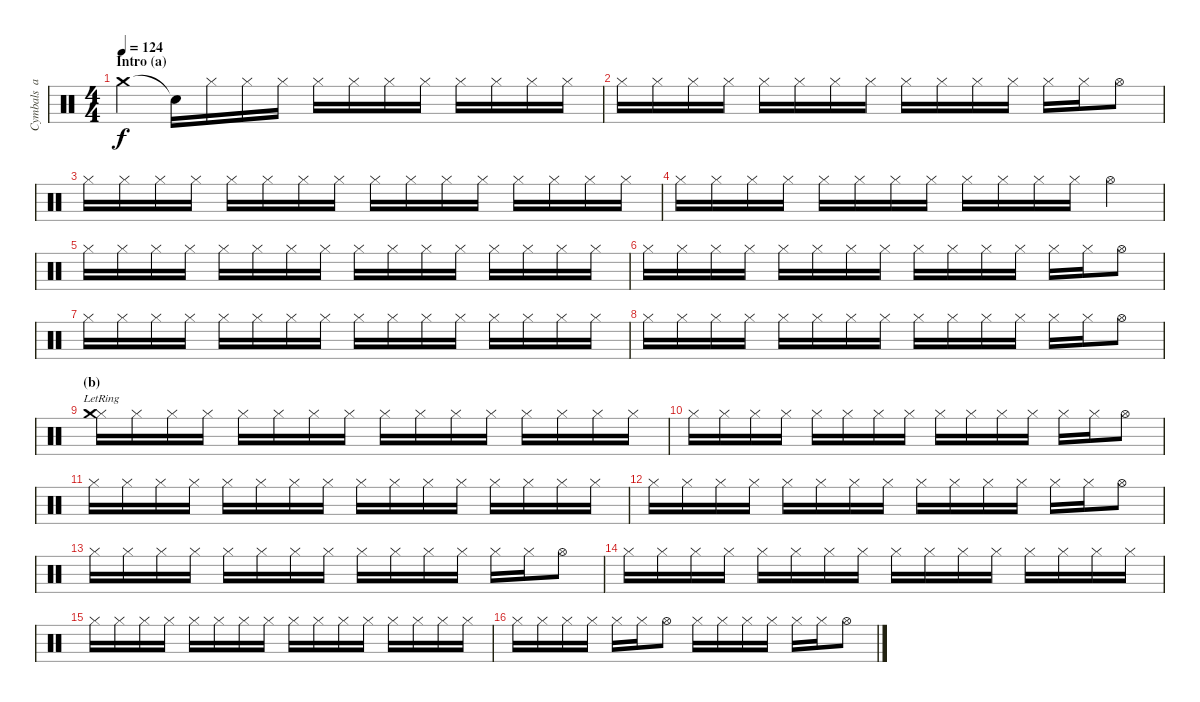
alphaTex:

\track ("Cymbals  and Hi-hat" "Cymbals  a") {instrument percussion}
\staff {score}
\articulation defaults
\ts (4 4)
\section ("" "Intro (a)")
\tempo 124
\clef neutral
\ks c "Crash medium (hit)".4{dy f} "Snare (hit)"{t}.16 "Hi-Hat (closed)".16 "Hi-Hat (closed)".16 "Hi-Hat (closed)".16 "Hi-Hat (closed)".16 "Hi-Hat (closed)".16 "Hi-Hat (closed)".16 "Hi-Hat (closed)".16 "Hi-Hat (closed)".16 "Hi-Hat (closed)".16 "Hi-Hat (closed)".16 "Hi-Hat (closed)".16
|
"Hi-Hat (closed)".16 "Hi-Hat (closed)".16 "Hi-Hat (closed)".16 "Hi-Hat (closed)".16 "Hi-Hat (closed)".16 "Hi-Hat (closed)".16 "Hi-Hat (closed)".16 "Hi-Hat (closed)".16 "Hi-Hat (closed)".16 "Hi-Hat (closed)".16 "Hi-Hat (closed)".16 "Hi-Hat (closed)".16 "Hi-Hat (closed)".16 "Hi-Hat (closed)".16 "Hi-Hat (open)".8 |
"Hi-Hat (closed)".16 "Hi-Hat (closed)".16 "Hi-Hat (closed)".16 "Hi-Hat (closed)".16 "Hi-Hat (closed)".16 "Hi-Hat (closed)".16 "Hi-Hat (closed)".16 "Hi-Hat (closed)".16 "Hi-Hat (closed)".16 "Hi-Hat (closed)".16 "Hi-Hat (closed)".16 "Hi-Hat (closed)".16 "Hi-Hat (closed)".16 "Hi-Hat (closed)".16 "Hi-Hat (closed)".16 "Hi-Hat (closed)".16 |
"Hi-Hat (closed)".16 "Hi-Hat (closed)".16 "Hi-Hat (closed)".16 "Hi-Hat (closed)".16 "Hi-Hat (closed)".16 "Hi-Hat (closed)".16 "Hi-Hat (closed)".16 "Hi-Hat (closed)".16 "Hi-Hat (closed)".16 "Hi-Hat (closed)".16 "Hi-Hat (closed)".16 "Hi-Hat (closed)".16 "Hi-Hat (open)".4 |
"Hi-Hat (closed)".16 "Hi-Hat (closed)".16 "Hi-Hat (closed)".16 "Hi-Hat (closed)".16 "Hi-Hat (closed)".16 "Hi-Hat (closed)".16 "Hi-Hat (closed)".16 "Hi-Hat (closed)".16 "Hi-Hat (closed)".16 "Hi-Hat (closed)".16 "Hi-Hat (closed)".16 "Hi-Hat (closed)".16 "Hi-Hat (closed)".16 "Hi-Hat (closed)".16 "Hi-Hat (closed)".16 "Hi-Hat (closed)".16 |
"Hi-Hat (closed)".16 "Hi-Hat (closed)".16 "Hi-Hat (closed)".16 "Hi-Hat (closed)".16 "Hi-Hat (closed)".16 "Hi-Hat (closed)".16 "Hi-Hat (closed)".16 "Hi-Hat (closed)".16 "Hi-Hat (closed)".16 "Hi-Hat (closed)".16 "Hi-Hat (closed)".16 "Hi-Hat (closed)".16 "Hi-Hat (closed)".16 "Hi-Hat (closed)".16 "Hi-Hat (open)".8 |
"Hi-Hat (closed)".16 "Hi-Hat (closed)".16 "Hi-Hat (closed)".16 "Hi-Hat (closed)".16 "Hi-Hat (closed)".16 "Hi-Hat (closed)".16 "Hi-Hat (closed)".16 "Hi-Hat (closed)".16 "Hi-Hat (closed)".16 "Hi-Hat (closed)".16 "Hi-Hat (closed)".16 "Hi-Hat (closed)".16 "Hi-Hat (closed)".16 "Hi-Hat (closed)".16 "Hi-Hat (closed)".16 "Hi-Hat (closed)".16 |
"Hi-Hat (closed)".16 "Hi-Hat (closed)".16 "Hi-Hat (closed)".16 "Hi-Hat (closed)".16 "Hi-Hat (closed)".16 "Hi-Hat (closed)".16 "Hi-Hat (closed)".16 "Hi-Hat (closed)".16 "Hi-Hat (closed)".16 "Hi-Hat (closed)".16 "Hi-Hat (closed)".16 "Hi-Hat (closed)".16 "Hi-Hat (closed)".16 "Hi-Hat (closed)".16 "Hi-Hat (open)".8 |
\section ("" "(b)")
("Hi-Hat (closed)" "Crash medium (hit)"{lr}).16 "Hi-Hat (closed)".16 "Hi-Hat (closed)".16 "Hi-Hat (closed)".16 "Hi-Hat (closed)".16 "Hi-Hat (closed)".16 "Hi-Hat (closed)".16 "Hi-Hat (closed)".16 "Hi-Hat (closed)".16 "Hi-Hat (closed)".16 "Hi-Hat (closed)".16 "Hi-Hat (closed)".16 "Hi-Hat (closed)".16 "Hi-Hat (closed)".16 "Hi-Hat (closed)".16 "Hi-Hat (closed)".16 |
"Hi-Hat (closed)".16 "Hi-Hat (closed)".16 "Hi-Hat (closed)".16 "Hi-Hat (closed)".16 "Hi-Hat (closed)".16 "Hi-Hat (closed)".16 "Hi-Hat (closed)".16 "Hi-Hat (closed)".16 "Hi-Hat (closed)".16 "Hi-Hat (closed)".16 "Hi-Hat (closed)".16 "Hi-Hat (closed)".16 "Hi-Hat (closed)".16 "Hi-Hat (closed)".16 "Hi-Hat (open)".8 |
"Hi-Hat (closed)".16 "Hi-Hat (closed)".16 "Hi-Hat (closed)".16 "Hi-Hat (closed)".16 "Hi-Hat (closed)".16 "Hi-Hat (closed)".16 "Hi-Hat (closed)".16 "Hi-Hat (closed)".16 "Hi-Hat (closed)".16 "Hi-Hat (closed)".16 "Hi-Hat (closed)".16 "Hi-Hat (closed)".16 "Hi-Hat (closed)".16 "Hi-Hat (closed)".16 "Hi-Hat (closed)".16 "Hi-Hat (closed)".16 |
"Hi-Hat (closed)".16 "Hi-Hat (closed)".16 "Hi-Hat (closed)".16 "Hi-Hat (closed)".16 "Hi-Hat (closed)".16 "Hi-Hat (closed)".16 "Hi-Hat (closed)".16 "Hi-Hat (closed)".16 "Hi-Hat (closed)".16 "Hi-Hat (closed)".16 "Hi-Hat (closed)".16 "Hi-Hat (closed)".16 "Hi-Hat (closed)".16 "Hi-Hat (closed)".16 "Hi-Hat (open)".8 |
"Hi-Hat (closed)".16 "Hi-Hat (closed)".16 "Hi-Hat (closed)".16 "Hi-Hat (closed)".16 "Hi-Hat (closed)".16 "Hi-Hat (closed)".16 "Hi-Hat (closed)".16 "Hi-Hat (closed)".16 "Hi-Hat (closed)".16 "Hi-Hat (closed)".16 "Hi-Hat (closed)".16 "Hi-Hat (closed)".16 "Hi-Hat (closed)".16 "Hi-Hat (closed)".16 "Hi-Hat (open)".8 |
"Hi-Hat (closed)".16 "Hi-Hat (closed)".16 "Hi-Hat (closed)".16 "Hi-Hat (closed)".16 "Hi-Hat (closed)".16 "Hi-Hat (closed)".16 "Hi-Hat (closed)".16 "Hi-Hat (closed)".16 "Hi-Hat (closed)".16 "Hi-Hat (closed)".16 "Hi-Hat (closed)".16 "Hi-Hat (closed)".16 "Hi-Hat (closed)".16 "Hi-Hat (closed)".16 "Hi-Hat (closed)".16 "Hi-Hat (closed)".16 |
"Hi-Hat (closed)".16 "Hi-Hat (closed)".16 "Hi-Hat (closed)".16 "Hi-Hat (closed)".16 "Hi-Hat (closed)".16 "Hi-Hat (closed)".16 "Hi-Hat (closed)".16 "Hi-Hat (closed)".16 "Hi-Hat (closed)".16 "Hi-Hat (closed)".16 "Hi-Hat (closed)".16 "Hi-Hat (closed)".16 "Hi-Hat (closed)".16 "Hi-Hat (closed)".16 "Hi-Hat (closed)".16 "Hi-Hat (closed)".16 |
"Hi-Hat (closed)".16 "Hi-Hat (closed)".16 "Hi-Hat (closed)".16 "Hi-Hat (closed)".16 "Hi-Hat (closed)".16 "Hi-Hat (closed)".16 "Hi-Hat (open)".8 "Hi-Hat (closed)".16 "Hi-Hat (closed)".16 "Hi-Hat (closed)".16 "Hi-Hat (closed)".16 "Hi-Hat (closed)".16 "Hi-Hat (closed)".16 "Hi-Hat (open)".8
